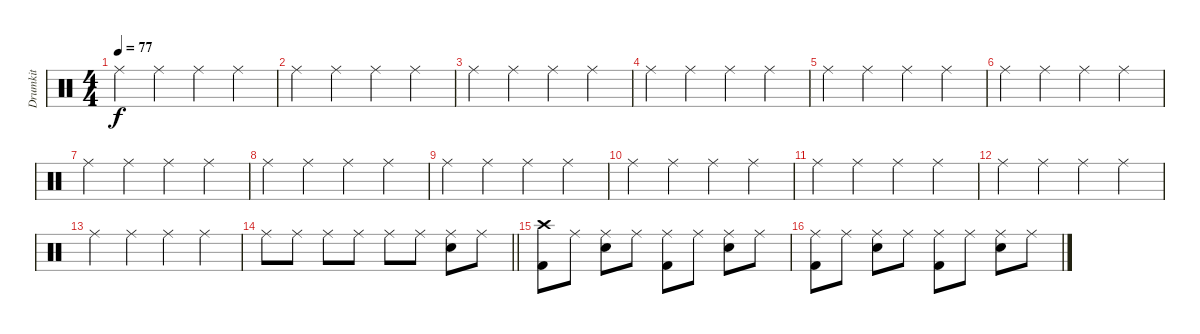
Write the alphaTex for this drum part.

\track ("Drumkit" "Drumkit") {instrument percussion}
\staff {score}
\articulation defaults
\ts (4 4)
\tempo 77
\clef neutral
\ks c "Ride (middle)".4{dy f} "Ride (middle)".4 "Ride (middle)".4 "Ride (middle)".4
|
"Ride (middle)".4 "Ride (middle)".4 "Ride (middle)".4 "Ride (middle)".4 |
"Ride (middle)".4 "Ride (middle)".4 "Ride (middle)".4 "Ride (middle)".4 |
"Ride (middle)".4 "Ride (middle)".4 "Ride (middle)".4 "Ride (middle)".4 |
"Ride (middle)".4 "Ride (middle)".4 "Ride (middle)".4 "Ride (middle)".4 |
"Ride (middle)".4 "Ride (middle)".4 "Ride (middle)".4 "Ride (middle)".4 |
"Ride (middle)".4 "Ride (middle)".4 "Ride (middle)".4 "Ride (middle)".4 |
"Ride (middle)".4 "Ride (middle)".4 "Ride (middle)".4 "Ride (middle)".4 |
"Ride (middle)".4 "Ride (middle)".4 "Ride (middle)".4 "Ride (middle)".4 |
"Ride (middle)".4 "Ride (middle)".4 "Ride (middle)".4 "Ride (middle)".4 |
"Ride (middle)".4 "Ride (middle)".4 "Ride (middle)".4 "Ride (middle)".4 |
"Ride (middle)".4 "Ride (middle)".4 "Ride (middle)".4 "Ride (middle)".4 |
"Ride (middle)".4 "Ride (middle)".4 "Ride (middle)".4 "Ride (middle)".4 |
\barLineRight lightlight "Ride (middle)".8 "Ride (middle)".8 "Ride (middle)".8 "Ride (middle)".8 "Ride (middle)".8 "Ride (middle)".8
("Ride (middle)" "Snare (hit) 2").8 "Ride (middle)".8 |
("Crash high (hit)" "Kick (hit) 2").8 "Ride (middle)".8 ("Ride (middle)" "Snare (hit) 2").8 "Ride (middle)".8 ("Ride (middle)" "Kick (hit) 2").8 "Ride (middle)".8 ("Ride (middle)" "Snare (hit) 2").8 "Ride (middle)".8 |
("Ride (middle)" "Kick (hit) 2").8 "Ride (middle)".8 ("Ride (middle)" "Snare (hit) 2").8 "Ride (middle)".8 ("Ride (middle)" "Kick (hit) 2").8 "Ride (middle)".8 ("Ride (middle)" "Snare (hit) 2").8 "Ride (middle)".8
